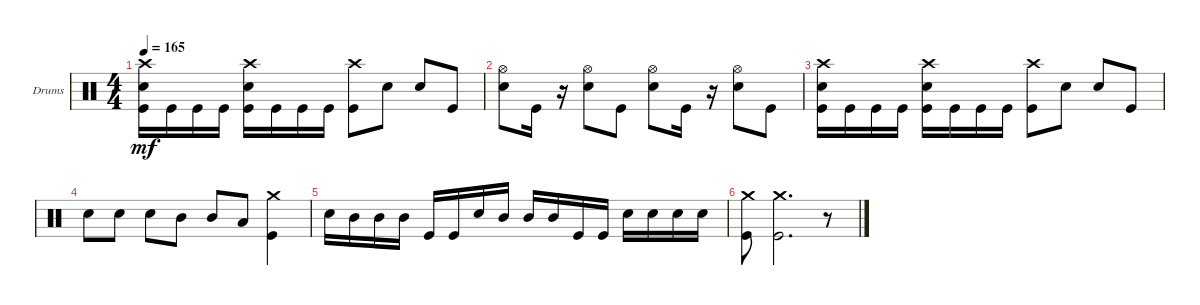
\bracketExtendMode groupsimilarinstruments
\firstSystemTrackNameOrientation horizontal
\otherSystemsTrackNameOrientation horizontal
\track ("Drums" "Drums") {solo instrument percussion}
\staff {score}
\articulation defaults
\ts (4 4)
\tempo 165
\clef neutral
\ks c
("Kick (hit)" "Snare (hit) 2" "Crash high (hit)").16{dy mf} "Kick (hit)".16 "Kick (hit)".16 "Kick (hit)".16 ("Kick (hit)" "Snare (hit) 2" "Crash high (hit)").16 "Kick (hit)".16 "Kick (hit)".16 "Kick (hit)".16 ("Crash high (hit)" "Kick (hit)").8 "Snare (hit) 2".8 "Snare (hit) 2".8 "Kick (hit)".8 |
("Snare (hit) 2" "Hi-Hat (open)").8 "Kick (hit)".16 r.16 ("Snare (hit) 2" "Hi-Hat (open)").8 "Kick (hit)".8 ("Snare (hit) 2" "Hi-Hat (open)").8 "Kick (hit)".16 r.16 ("Snare (hit) 2" "Hi-Hat (open)").8 "Kick (hit)".8 |
("Kick (hit)" "Snare (hit) 2" "Crash high (hit)").16 "Kick (hit)".16 "Kick (hit)".16 "Kick (hit)".16 ("Kick (hit)" "Snare (hit) 2" "Crash high (hit)").16 "Kick (hit)".16 "Kick (hit)".16 "Kick (hit)".16 ("Crash high (hit)" "Kick (hit)").8 "Snare (hit) 2".8 "Snare (hit) 2".8 "Kick (hit)".8 |
"Snare (hit) 2".8 "Snare (hit) 2".8 "Snare (hit) 2".8 "Mid Tom (hit)".8 "Mid Tom (hit)".8 "Low Tom (hit)".8 ("Kick (hit)" "Crash medium (hit)").4 |
"Snare (hit) 2".16 "Mid Tom (hit)".16 "Mid Tom (hit)".16 "Mid Tom (hit)".16 "Kick (hit)".16 "Kick (hit)".16 "Snare (hit) 2".16 "Mid Tom (hit)".16 "Mid Tom (hit)".16 "Mid Tom (hit)".16 "Kick (hit)".16 "Kick (hit)".16 "Snare (hit) 2".16 "Snare (hit) 2".16 "Snare (hit) 2".16 "Snare (hit) 2".16 |
("Kick (hit)" "Crash medium (hit)").8 ("Kick (hit)" "Crash medium (hit)").2{d} r.8
